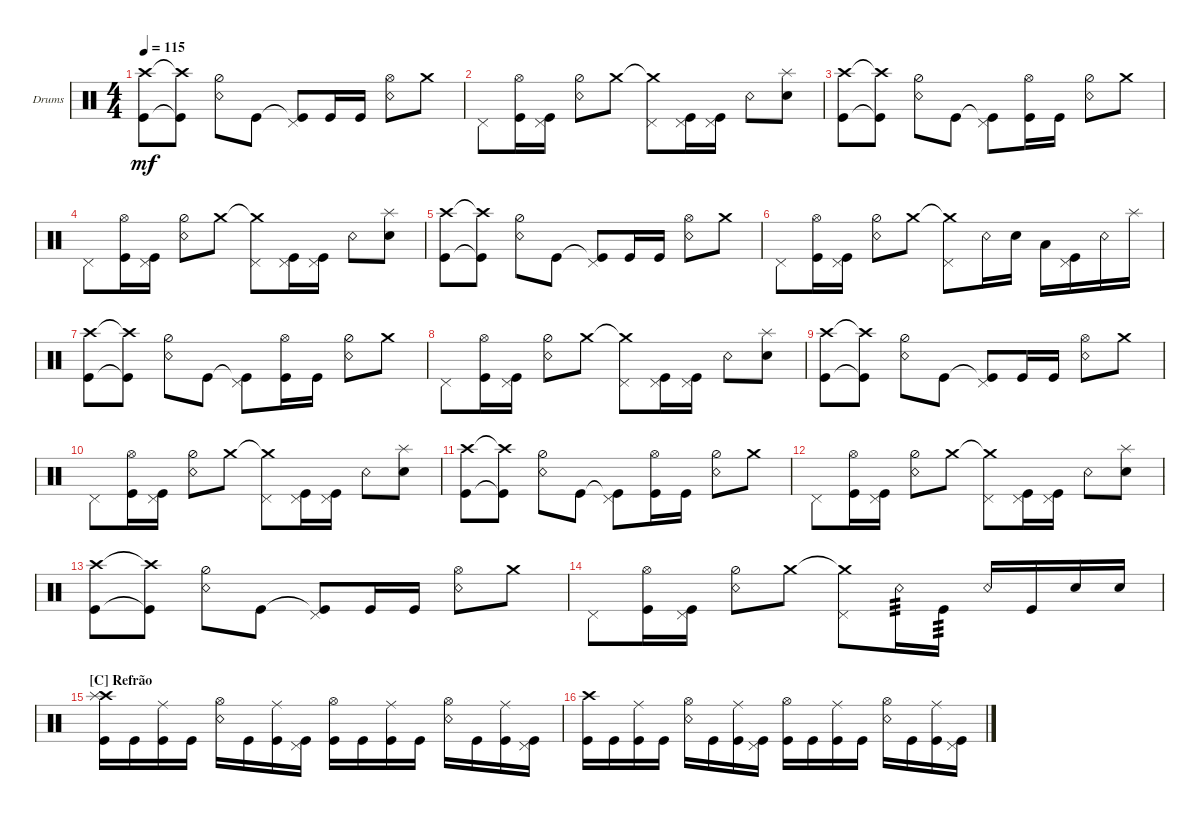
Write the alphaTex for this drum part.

\defaultSystemsLayout 4
\bracketExtendMode groupsimilarinstruments
\firstSystemTrackNameOrientation horizontal
\otherSystemsTrackNameOrientation horizontal
\track ("Drum" "Drums") {multiBarRest instrument percussion}
\staff {score}
\articulation defaults
\ts (4 4)
\tempo 115
\clef neutral
\ks c
("Kick (hit)" "Crash high (hit)").8{dy mf} ("Kick (hit)"{t} "Crash high (hit)"{t}).8 ("Snare (rim shot)" "Hi-Hat (half)").8 "Kick (hit)".8 ("Kick (hit)"{t} "Pedal Hi-Hat (hit)").8 "Kick (hit)".16 "Kick (hit)".16 ("Snare (rim shot)" "Hi-Hat (open)").8 "Crash medium (hit)".8 |
"Pedal Hi-Hat (hit)".8 ("Kick (hit)" "Hi-Hat (open)").16 ("Kick (hit)" "Pedal Hi-Hat (hit)").16 ("Snare (rim shot)" "Hi-Hat (half)").8 "Crash medium (hit)".8 ("Crash medium (hit)"{t} "Pedal Hi-Hat (hit)").8 ("Kick (hit)" "Pedal Hi-Hat (hit)").16 ("Kick (hit)" "Pedal Hi-Hat (hit)").16 "Snare (rim shot)".8 ("Snare (hit) 2" "Splash (hit)").8 |
("Kick (hit)" "Crash high (hit)").8 ("Kick (hit)"{t} "Crash high (hit)"{t}).8 ("Snare (rim shot)" "Hi-Hat (half)").8 "Kick (hit)".8 ("Kick (hit)"{t} "Pedal Hi-Hat (hit)").8 ("Kick (hit)" "Hi-Hat (open)").16 "Kick (hit)".16 ("Snare (rim shot)" "Hi-Hat (half)").8 "Crash medium (hit)".8 |
"Pedal Hi-Hat (hit)".8 ("Kick (hit)" "Hi-Hat (open)").16 ("Kick (hit)" "Pedal Hi-Hat (hit)").16 ("Snare (rim shot)" "Hi-Hat (half)").8 "Crash medium (hit)".8 ("Crash medium (hit)"{t} "Pedal Hi-Hat (hit)").8 ("Kick (hit)" "Pedal Hi-Hat (hit)").16 ("Kick (hit)" "Pedal Hi-Hat (hit)").16 "Snare (rim shot)".8 ("Snare (hit) 2" "Splash (hit)").8 |
("Kick (hit)" "Crash high (hit)").8 ("Kick (hit)"{t} "Crash high (hit)"{t}).8 ("Snare (rim shot)" "Hi-Hat (half)").8 "Kick (hit)".8 ("Kick (hit)"{t} "Pedal Hi-Hat (hit)").8 "Kick (hit)".16 "Kick (hit)".16 ("Snare (rim shot)" "Hi-Hat (open)").8 "Crash medium (hit)".8 |
"Pedal Hi-Hat (hit)".8 ("Kick (hit)" "Hi-Hat (open)").16 ("Kick (hit)" "Pedal Hi-Hat (hit)").16 ("Snare (rim shot)" "Hi-Hat (half)").8 "Crash medium (hit)".8 ("Crash medium (hit)"{t} "Pedal Hi-Hat (hit)").8 "Snare (rim shot)".16 "Snare (hit) 2".16 "Low Tom (hit)".16 ("Kick (hit)" "Pedal Hi-Hat (hit)").16 "Snare (rim shot)".16 "Splash (hit)".16 |
("Kick (hit)" "Crash high (hit)").8 ("Kick (hit)"{t} "Crash high (hit)"{t}).8 ("Snare (rim shot)" "Hi-Hat (half)").8 "Kick (hit)".8 ("Kick (hit)"{t} "Pedal Hi-Hat (hit)").8 ("Kick (hit)" "Hi-Hat (open)").16 "Kick (hit)".16 ("Snare (rim shot)" "Hi-Hat (half)").8 "Crash medium (hit)".8 |
"Pedal Hi-Hat (hit)".8 ("Kick (hit)" "Hi-Hat (open)").16 ("Kick (hit)" "Pedal Hi-Hat (hit)").16 ("Snare (rim shot)" "Hi-Hat (half)").8 "Crash medium (hit)".8 ("Crash medium (hit)"{t} "Pedal Hi-Hat (hit)").8 ("Kick (hit)" "Pedal Hi-Hat (hit)").16 ("Kick (hit)" "Pedal Hi-Hat (hit)").16 "Snare (rim shot)".8 ("Snare (hit) 2" "Splash (hit)").8 |
("Kick (hit)" "Crash high (hit)").8 ("Kick (hit)"{t} "Crash high (hit)"{t}).8 ("Snare (rim shot)" "Hi-Hat (half)").8 "Kick (hit)".8 ("Kick (hit)"{t} "Pedal Hi-Hat (hit)").8 "Kick (hit)".16 "Kick (hit)".16 ("Snare (rim shot)" "Hi-Hat (open)").8 "Crash medium (hit)".8 |
"Pedal Hi-Hat (hit)".8 ("Kick (hit)" "Hi-Hat (open)").16 ("Kick (hit)" "Pedal Hi-Hat (hit)").16 ("Snare (rim shot)" "Hi-Hat (half)").8 "Crash medium (hit)".8 ("Crash medium (hit)"{t} "Pedal Hi-Hat (hit)").8 ("Kick (hit)" "Pedal Hi-Hat (hit)").16 ("Kick (hit)" "Pedal Hi-Hat (hit)").16 "Snare (rim shot)".8 ("Snare (hit) 2" "Splash (hit)").8 |
("Kick (hit)" "Crash high (hit)").8 ("Kick (hit)"{t} "Crash high (hit)"{t}).8 ("Snare (rim shot)" "Hi-Hat (half)").8 "Kick (hit)".8 ("Kick (hit)"{t} "Pedal Hi-Hat (hit)").8 ("Kick (hit)" "Hi-Hat (open)").16 "Kick (hit)".16 ("Snare (rim shot)" "Hi-Hat (half)").8 "Crash medium (hit)".8 |
"Pedal Hi-Hat (hit)".8 ("Kick (hit)" "Hi-Hat (open)").16 ("Kick (hit)" "Pedal Hi-Hat (hit)").16 ("Snare (rim shot)" "Hi-Hat (half)").8 "Crash medium (hit)".8 ("Crash medium (hit)"{t} "Pedal Hi-Hat (hit)").8 ("Kick (hit)" "Pedal Hi-Hat (hit)").16 ("Kick (hit)" "Pedal Hi-Hat (hit)").16 "Snare (rim shot)".8 ("Snare (hit) 2" "Splash (hit)").8 |
("Kick (hit)" "Crash high (hit)").8 ("Kick (hit)"{t} "Crash high (hit)"{t}).8 ("Snare (rim shot)" "Hi-Hat (half)").8 "Kick (hit)".8 ("Kick (hit)"{t} "Pedal Hi-Hat (hit)").8 "Kick (hit)".16 "Kick (hit)".16 ("Snare (rim shot)" "Hi-Hat (open)").8 "Crash medium (hit)".8 |
"Pedal Hi-Hat (hit)".8 ("Kick (hit)" "Hi-Hat (open)").16 ("Kick (hit)" "Pedal Hi-Hat (hit)").16 ("Snare (rim shot)" "Hi-Hat (half)").8 "Crash medium (hit)".8 ("Crash medium (hit)"{t} "Pedal Hi-Hat (hit)").8 "Snare (rim shot)".16{tp 3} "Kick (hit)".16{tp 3} "Snare (rim shot)".16 "Kick (hit)".16 "Snare (hit) 2".16 "Snare (hit) 2".16 |
\section ("C" "Refrão")
("Kick (hit)" "Crash high (hit)" "Splash (hit)").16 "Kick (hit)".16 ("Kick (hit)" "Ride (middle)").16 "Kick (hit)".16 ("Snare (rim shot)" "Hi-Hat (open)").16 "Kick (hit)".16 ("Kick (hit)" "Ride (middle)").16 ("Kick (hit)" "Pedal Hi-Hat (hit)").16 ("Kick (hit)" "Hi-Hat (open)").16 "Kick (hit)".16 ("Kick (hit)" "Ride (middle)").16 "Kick (hit)".16 ("Snare (rim shot)" "Hi-Hat (open)").16 "Kick (hit)".16 ("Kick (hit)" "Ride (middle)").16 ("Kick (hit)" "Pedal Hi-Hat (hit)").16 |
("Kick (hit)" "Crash high (hit)").16 "Kick (hit)".16 ("Kick (hit)" "Ride (middle)").16 "Kick (hit)".16 ("Snare (rim shot)" "Hi-Hat (open)").16 "Kick (hit)".16 ("Kick (hit)" "Ride (middle)").16 ("Kick (hit)" "Pedal Hi-Hat (hit)").16 ("Kick (hit)" "Hi-Hat (open)").16 "Kick (hit)".16 ("Kick (hit)" "Ride (middle)").16 "Kick (hit)".16 ("Snare (rim shot)" "Hi-Hat (open)").16 "Kick (hit)".16 ("Kick (hit)" "Ride (middle)").16 ("Kick (hit)" "Pedal Hi-Hat (hit)").16
